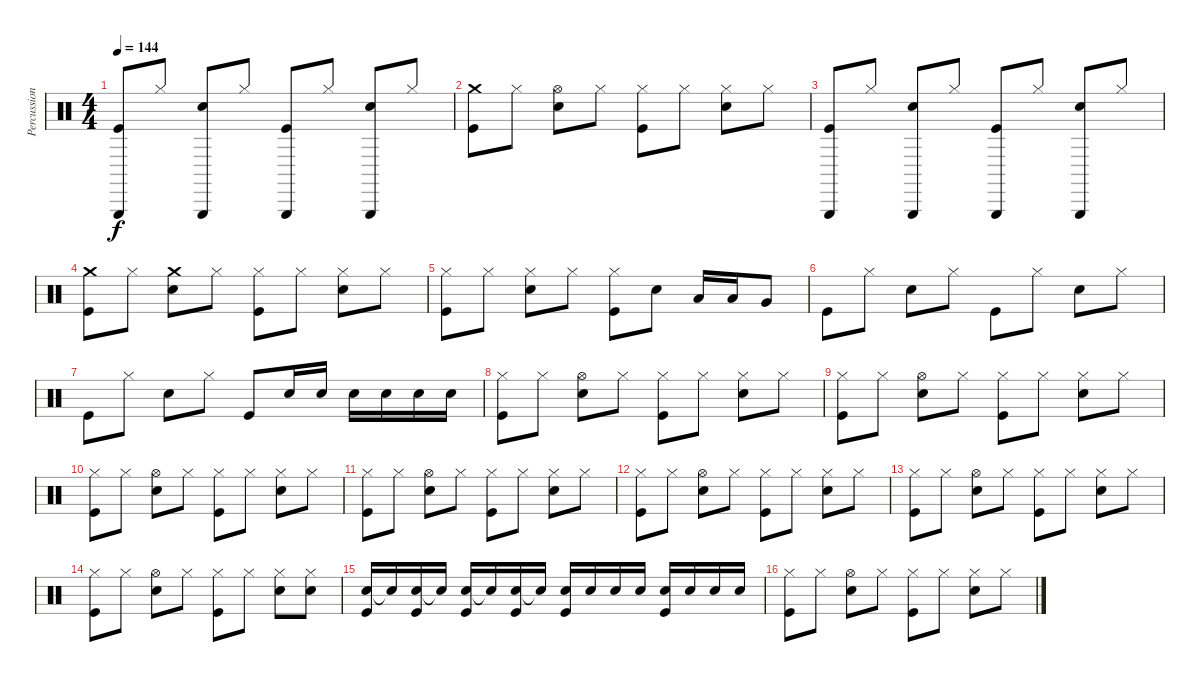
\track ("Percussion" "Percussion") {instrument percussion}
\staff {score}
\articulation defaults
\ts (4 4)
\tempo 144
\clef neutral
\ks c
("Triangle (hit)" "Kick (hit)").8{dy f} "Hi-Hat (closed)".8 ("Triangle (hit)" "Snare (hit) 2").8 "Hi-Hat (closed)".8 ("Triangle (hit)" "Kick (hit)").8 "Hi-Hat (closed)".8 ("Triangle (hit)" "Snare (hit) 2").8 "Hi-Hat (closed)".8 |
("Crash medium (hit)" "Kick (hit)").8 "Hi-Hat (closed)".8 ("Hi-Hat (open)" "Snare (hit) 2").8 "Hi-Hat (closed)".8 ("Hi-Hat (closed)" "Kick (hit)").8 "Hi-Hat (closed)".8 ("Hi-Hat (closed)" "Snare (hit) 2").8 "Hi-Hat (closed)".8 |
("Triangle (hit)" "Kick (hit)").8 "Hi-Hat (closed)".8 ("Triangle (hit)" "Snare (hit) 2").8 "Hi-Hat (closed)".8 ("Triangle (hit)" "Kick (hit)").8 "Hi-Hat (closed)".8 ("Triangle (hit)" "Snare (hit) 2").8 "Hi-Hat (closed)".8 |
("Crash medium (hit)" "Kick (hit)").8 "Hi-Hat (closed)".8 ("Crash medium (hit)" "Snare (hit) 2").8 "Hi-Hat (closed)".8 ("Hi-Hat (closed)" "Kick (hit)").8 "Hi-Hat (closed)".8 ("Hi-Hat (closed)" "Snare (hit) 2").8 "Hi-Hat (closed)".8 |
("Hi-Hat (closed)" "Kick (hit)").8 "Hi-Hat (closed)".8 ("Hi-Hat (closed)" "Snare (hit) 2").8 "Hi-Hat (closed)".8 ("Hi-Hat (closed)" "Kick (hit)").8 "Snare (hit) 2".8 "Low Floor Tom (hit)".16 "Low Floor Tom (hit)".16 "Very Low Tom (hit)".8 |
"Kick (hit)".8 "Hi-Hat (closed)".8 "Snare (hit) 2".8 "Hi-Hat (closed)".8 "Kick (hit)".8 "Hi-Hat (closed)".8 "Snare (hit) 2".8 "Hi-Hat (closed)".8 |
"Kick (hit)".8 "Hi-Hat (closed)".8 "Snare (hit) 2".8 "Hi-Hat (closed)".8 "Kick (hit)".8 "Snare (hit) 2".16 "Snare (hit) 2".16 "Snare (hit) 2".16 "Snare (hit) 2".16 "Snare (hit) 2".16 "Snare (hit) 2".16 |
("Hi-Hat (closed)" "Kick (hit)").8 "Hi-Hat (closed)".8 ("Hi-Hat (open)" "Snare (hit) 2").8 "Hi-Hat (closed)".8 ("Hi-Hat (closed)" "Kick (hit)").8 "Hi-Hat (closed)".8 ("Hi-Hat (closed)" "Snare (hit) 2").8 "Hi-Hat (closed)".8 |
("Hi-Hat (closed)" "Kick (hit)").8 "Hi-Hat (closed)".8 ("Hi-Hat (open)" "Snare (hit) 2").8 "Hi-Hat (closed)".8 ("Hi-Hat (closed)" "Kick (hit)").8 "Hi-Hat (closed)".8 ("Hi-Hat (closed)" "Snare (hit) 2").8 "Hi-Hat (closed)".8 |
("Hi-Hat (closed)" "Kick (hit)").8 "Hi-Hat (closed)".8 ("Hi-Hat (open)" "Snare (hit) 2").8 "Hi-Hat (closed)".8 ("Hi-Hat (closed)" "Kick (hit)").8 "Hi-Hat (closed)".8 ("Hi-Hat (closed)" "Snare (hit) 2").8 "Hi-Hat (closed)".8 |
("Hi-Hat (closed)" "Kick (hit)").8 "Hi-Hat (closed)".8 ("Hi-Hat (open)" "Snare (hit) 2").8 "Hi-Hat (closed)".8 ("Hi-Hat (closed)" "Kick (hit)").8 "Hi-Hat (closed)".8 ("Hi-Hat (closed)" "Snare (hit) 2").8 "Hi-Hat (closed)".8 |
("Hi-Hat (closed)" "Kick (hit)").8 "Hi-Hat (closed)".8 ("Hi-Hat (open)" "Snare (hit) 2").8 "Hi-Hat (closed)".8 ("Hi-Hat (closed)" "Kick (hit)").8 "Hi-Hat (closed)".8 ("Hi-Hat (closed)" "Snare (hit) 2").8 "Hi-Hat (closed)".8 |
("Hi-Hat (closed)" "Kick (hit)").8 "Hi-Hat (closed)".8 ("Hi-Hat (open)" "Snare (hit) 2").8 "Hi-Hat (closed)".8 ("Hi-Hat (closed)" "Kick (hit)").8 "Hi-Hat (closed)".8 ("Hi-Hat (closed)" "Snare (hit) 2").8 "Hi-Hat (closed)".8 |
("Hi-Hat (closed)" "Kick (hit)").8 "Hi-Hat (closed)".8 ("Hi-Hat (open)" "Snare (hit) 2").8 "Hi-Hat (closed)".8 ("Hi-Hat (closed)" "Kick (hit)").8 "Hi-Hat (closed)".8 ("Hi-Hat (closed)" "Snare (hit) 2").8 ("Hi-Hat (closed)" "Snare (hit) 2").8 |
("Snare (hit) 2" "Kick (hit)").16 "Snare (hit) 2"{t}.16 ("Snare (hit) 2" "Kick (hit)").16 "Snare (hit) 2"{t}.16 ("Snare (hit) 2" "Kick (hit)").16 "Snare (hit) 2"{t}.16 ("Snare (hit) 2" "Kick (hit)").16 "Snare (hit) 2"{t}.16 ("Snare (hit) 2" "Kick (hit)").16 "Snare (hit) 2".16 "Snare (hit) 2".16 "Snare (hit) 2".16 ("Snare (hit) 2" "Kick (hit)").16 "Snare (hit) 2".16 "Snare (hit) 2".16 "Snare (hit) 2".16 |
("Hi-Hat (closed)" "Kick (hit)").8 "Hi-Hat (closed)".8 ("Hi-Hat (open)" "Snare (hit) 2").8 "Hi-Hat (closed)".8 ("Hi-Hat (closed)" "Kick (hit)").8 "Hi-Hat (closed)".8 ("Hi-Hat (closed)" "Snare (hit) 2").8 "Hi-Hat (closed)".8
